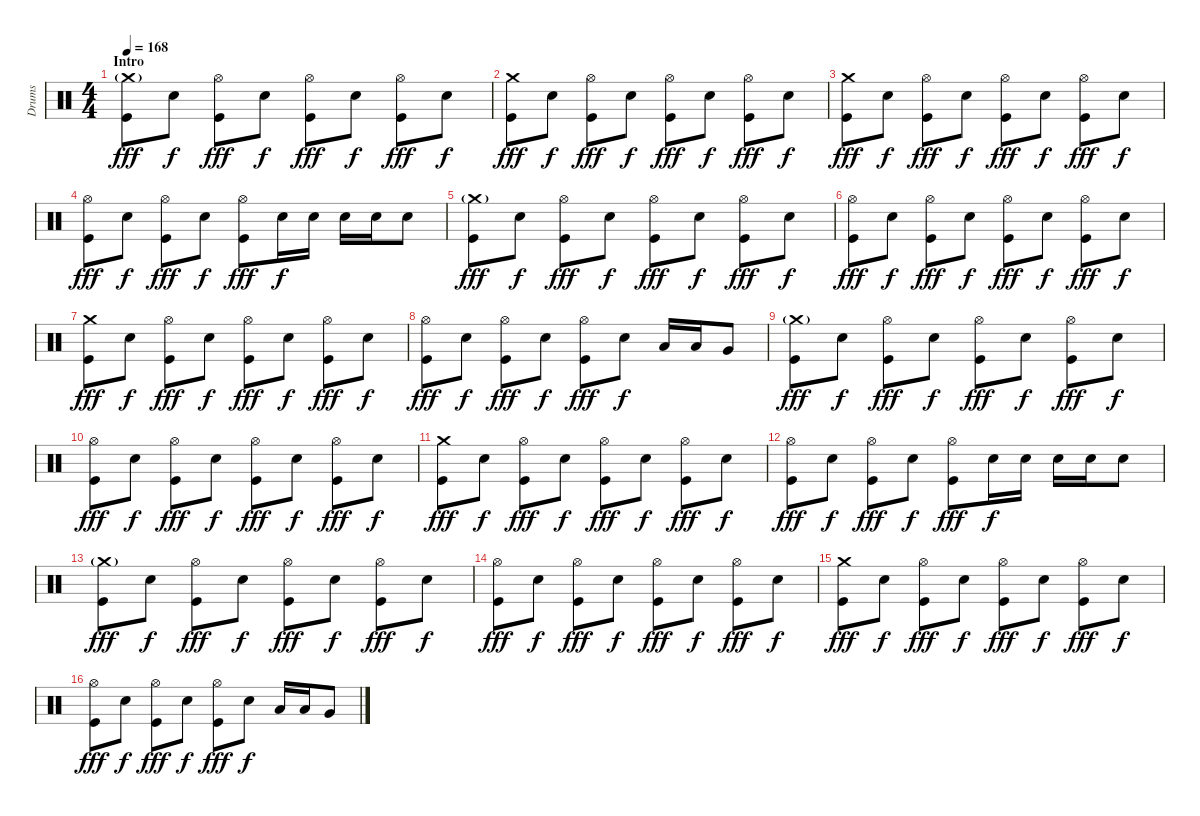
\track ("Drums" "Drums") {instrument percussion}
\staff {score}
\articulation defaults
\ts (4 4)
\section ("" "Intro")
\tempo 168
\clef neutral
\ks c
("Crash medium (hit)"{g} "Kick (hit)").8{dy fff} "Snare (hit) 2".8{dy f} ("Hi-Hat (open)" "Kick (hit)").8{dy fff} "Snare (hit) 2".8{dy f} ("Hi-Hat (open)" "Kick (hit)").8{dy fff} "Snare (hit) 2".8{dy f} ("Hi-Hat (open)" "Kick (hit)").8{dy fff} "Snare (hit) 2".8{dy f} |
("Crash medium (hit)" "Kick (hit)").8{dy fff} "Snare (hit) 2".8{dy f} ("Hi-Hat (open)" "Kick (hit)").8{dy fff} "Snare (hit) 2".8{dy f} ("Hi-Hat (open)" "Kick (hit)").8{dy fff} "Snare (hit) 2".8{dy f} ("Hi-Hat (open)" "Kick (hit)").8{dy fff} "Snare (hit) 2".8{dy f} |
("Crash medium (hit)" "Kick (hit)").8{dy fff} "Snare (hit) 2".8{dy f} ("Hi-Hat (open)" "Kick (hit)").8{dy fff} "Snare (hit) 2".8{dy f} ("Hi-Hat (open)" "Kick (hit)").8{dy fff} "Snare (hit) 2".8{dy f} ("Hi-Hat (open)" "Kick (hit)").8{dy fff} "Snare (hit) 2".8{dy f} |
("Hi-Hat (open)" "Kick (hit)").8{dy fff} "Snare (hit) 2".8{dy f} ("Hi-Hat (open)" "Kick (hit)").8{dy fff} "Snare (hit) 2".8{dy f} ("Hi-Hat (open)" "Kick (hit)").8{dy fff} "Snare (hit) 2".16{dy f} "Snare (hit) 2".16 "Snare (hit) 2".16 "Snare (hit) 2".16 "Snare (hit) 2".8 |
("Crash medium (hit)"{g} "Kick (hit)").8{dy fff} "Snare (hit) 2".8{dy f} ("Hi-Hat (open)" "Kick (hit)").8{dy fff} "Snare (hit) 2".8{dy f} ("Hi-Hat (open)" "Kick (hit)").8{dy fff} "Snare (hit) 2".8{dy f} ("Hi-Hat (open)" "Kick (hit)").8{dy fff} "Snare (hit) 2".8{dy f} |
("Hi-Hat (open)" "Kick (hit)").8{dy fff} "Snare (hit) 2".8{dy f} ("Hi-Hat (open)" "Kick (hit)").8{dy fff} "Snare (hit) 2".8{dy f} ("Hi-Hat (open)" "Kick (hit)").8{dy fff} "Snare (hit) 2".8{dy f} ("Hi-Hat (open)" "Kick (hit)").8{dy fff} "Snare (hit) 2".8{dy f} |
("Crash medium (hit)" "Kick (hit)").8{dy fff} "Snare (hit) 2".8{dy f} ("Hi-Hat (open)" "Kick (hit)").8{dy fff} "Snare (hit) 2".8{dy f} ("Hi-Hat (open)" "Kick (hit)").8{dy fff} "Snare (hit) 2".8{dy f} ("Hi-Hat (open)" "Kick (hit)").8{dy fff} "Snare (hit) 2".8{dy f} |
("Hi-Hat (open)" "Kick (hit)").8{dy fff} "Snare (hit) 2".8{dy f} ("Hi-Hat (open)" "Kick (hit)").8{dy fff} "Snare (hit) 2".8{dy f} ("Hi-Hat (open)" "Kick (hit)").8{dy fff} "Snare (hit) 2".8{dy f} "Low Tom (hit)".16 "Low Tom (hit)".16 "Very Low Tom (hit)".8 |
("Crash medium (hit)"{g} "Kick (hit)").8{dy fff} "Snare (hit) 2".8{dy f} ("Hi-Hat (open)" "Kick (hit)").8{dy fff} "Snare (hit) 2".8{dy f} ("Hi-Hat (open)" "Kick (hit)").8{dy fff} "Snare (hit) 2".8{dy f} ("Hi-Hat (open)" "Kick (hit)").8{dy fff} "Snare (hit) 2".8{dy f} |
("Hi-Hat (open)" "Kick (hit)").8{dy fff} "Snare (hit) 2".8{dy f} ("Hi-Hat (open)" "Kick (hit)").8{dy fff} "Snare (hit) 2".8{dy f} ("Hi-Hat (open)" "Kick (hit)").8{dy fff} "Snare (hit) 2".8{dy f} ("Hi-Hat (open)" "Kick (hit)").8{dy fff} "Snare (hit) 2".8{dy f} |
("Crash medium (hit)" "Kick (hit)").8{dy fff} "Snare (hit) 2".8{dy f} ("Hi-Hat (open)" "Kick (hit)").8{dy fff} "Snare (hit) 2".8{dy f} ("Hi-Hat (open)" "Kick (hit)").8{dy fff} "Snare (hit) 2".8{dy f} ("Hi-Hat (open)" "Kick (hit)").8{dy fff} "Snare (hit) 2".8{dy f} |
("Hi-Hat (open)" "Kick (hit)").8{dy fff} "Snare (hit) 2".8{dy f} ("Hi-Hat (open)" "Kick (hit)").8{dy fff} "Snare (hit) 2".8{dy f} ("Hi-Hat (open)" "Kick (hit)").8{dy fff} "Snare (hit) 2".16{dy f} "Snare (hit) 2".16 "Snare (hit) 2".16 "Snare (hit) 2".16 "Snare (hit) 2".8 |
("Crash medium (hit)"{g} "Kick (hit)").8{dy fff} "Snare (hit) 2".8{dy f} ("Hi-Hat (open)" "Kick (hit)").8{dy fff} "Snare (hit) 2".8{dy f} ("Hi-Hat (open)" "Kick (hit)").8{dy fff} "Snare (hit) 2".8{dy f} ("Hi-Hat (open)" "Kick (hit)").8{dy fff} "Snare (hit) 2".8{dy f} |
("Hi-Hat (open)" "Kick (hit)").8{dy fff} "Snare (hit) 2".8{dy f} ("Hi-Hat (open)" "Kick (hit)").8{dy fff} "Snare (hit) 2".8{dy f} ("Hi-Hat (open)" "Kick (hit)").8{dy fff} "Snare (hit) 2".8{dy f} ("Hi-Hat (open)" "Kick (hit)").8{dy fff} "Snare (hit) 2".8{dy f} |
("Crash medium (hit)" "Kick (hit)").8{dy fff} "Snare (hit) 2".8{dy f} ("Hi-Hat (open)" "Kick (hit)").8{dy fff} "Snare (hit) 2".8{dy f} ("Hi-Hat (open)" "Kick (hit)").8{dy fff} "Snare (hit) 2".8{dy f} ("Hi-Hat (open)" "Kick (hit)").8{dy fff} "Snare (hit) 2".8{dy f} |
("Hi-Hat (open)" "Kick (hit)").8{dy fff} "Snare (hit) 2".8{dy f} ("Hi-Hat (open)" "Kick (hit)").8{dy fff} "Snare (hit) 2".8{dy f} ("Hi-Hat (open)" "Kick (hit)").8{dy fff} "Snare (hit) 2".8{dy f} "Low Tom (hit)".16 "Low Tom (hit)".16 "Very Low Tom (hit)".8
